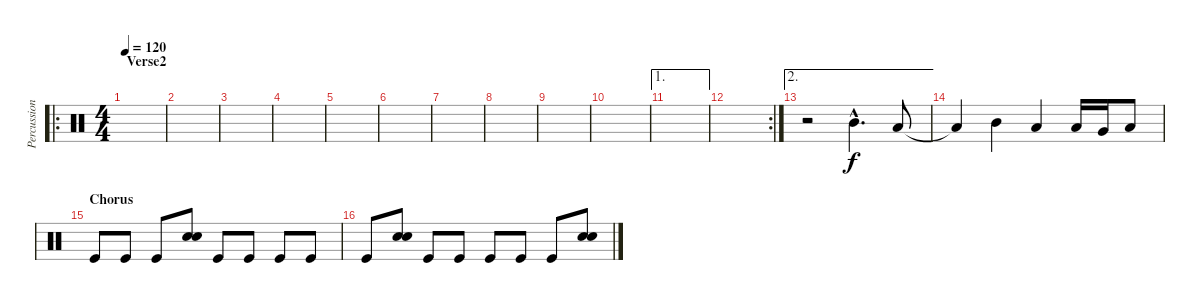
\track ("Percussion" "Percussion") {instrument percussion}
\staff {score}
\articulation defaults
\ro
\ts (4 4)
\section ("" "Verse2")
\tempo 120
\clef neutral
\ks c
|
|
|
|
|
|
|
|
|
|
\ae 1
|
\rc 2
|
\ae 2
r.2 "Mid Tom (hit)"{hac}.4{d} "Low Tom (hit)".8 |
"Low Tom (hit)"{t}.4 "Mid Tom (hit)".4 "Low Tom (hit)".4 "Low Tom (hit)".16 "Very Low Tom (hit)".16 "Low Floor Tom (hit)".8 |
\section ("" "Chorus")
"Kick (hit)".8 "Kick (hit)".8 "Kick (hit)".8 ("Snare (hit) 2" "Electric Snare (hit)").8 "Kick (hit)".8 "Kick (hit)".8 "Kick (hit)".8 "Kick (hit)".8 |
"Kick (hit)".8 ("Snare (hit) 2" "Electric Snare (hit)").8 "Kick (hit)".8 "Kick (hit)".8 "Kick (hit)".8 "Kick (hit)".8 "Kick (hit)".8 ("Snare (hit) 2" "Electric Snare (hit)").8
